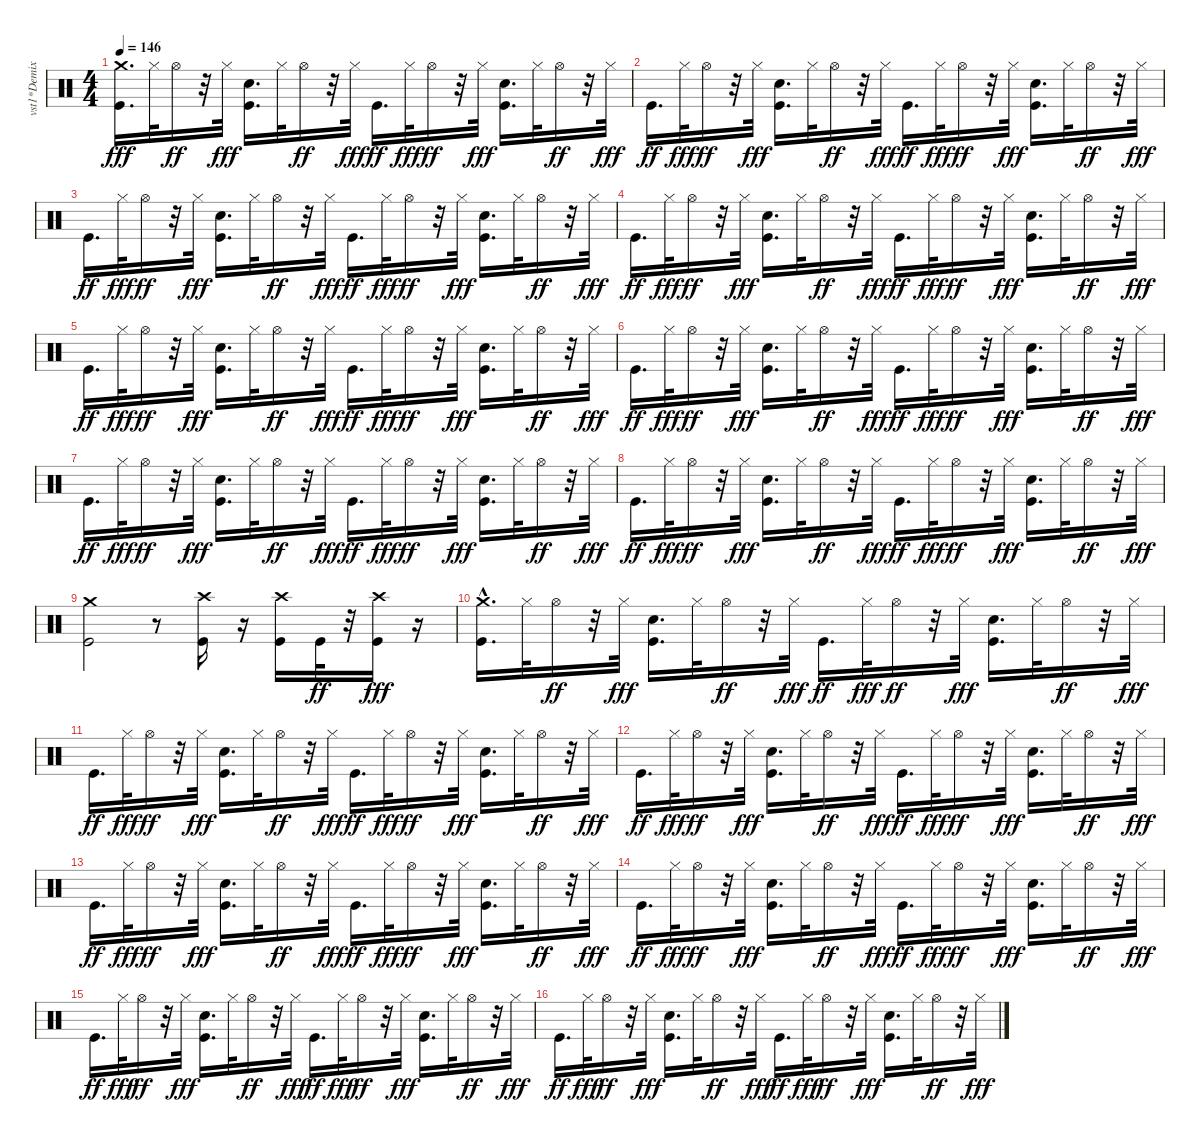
\track ("vst1*Demixed 10" "vst1*Demix") {instrument percussion}
\staff {score}
\articulation defaults
\ts (4 4)
\tempo 146
\clef neutral
\ks c
("Kick (hit)" "Crash medium (hit)").16{d dy fff} "Hi-Hat (closed)".32 "Hi-Hat (open)".16{dy ff} r.32 "Hi-Hat (closed)".32{dy fff} ("Kick (hit)" "Hand Clap (hit)").16{d} "Hi-Hat (closed)".32 "Hi-Hat (open)".16{dy ff} r.32 "Hi-Hat (closed)".32{dy fff} "Kick (hit)".16{d dy ff} "Hi-Hat (closed)".32{dy fff} "Hi-Hat (open)".16{dy ff} r.32 "Hi-Hat (closed)".32{dy fff} ("Kick (hit)" "Hand Clap (hit)").16{d} "Hi-Hat (closed)".32 "Hi-Hat (open)".16{dy ff} r.32 "Hi-Hat (closed)".32{dy fff} |
"Kick (hit)".16{d dy ff} "Hi-Hat (closed)".32{dy fff} "Hi-Hat (open)".16{dy ff} r.32 "Hi-Hat (closed)".32{dy fff} ("Kick (hit)" "Hand Clap (hit)").16{d} "Hi-Hat (closed)".32 "Hi-Hat (open)".16{dy ff} r.32 "Hi-Hat (closed)".32{dy fff} "Kick (hit)".16{d dy ff} "Hi-Hat (closed)".32{dy fff} "Hi-Hat (open)".16{dy ff} r.32 "Hi-Hat (closed)".32{dy fff} ("Kick (hit)" "Hand Clap (hit)").16{d} "Hi-Hat (closed)".32 "Hi-Hat (open)".16{dy ff} r.32 "Hi-Hat (closed)".32{dy fff} |
"Kick (hit)".16{d dy ff} "Hi-Hat (closed)".32{dy fff} "Hi-Hat (open)".16{dy ff} r.32 "Hi-Hat (closed)".32{dy fff} ("Kick (hit)" "Hand Clap (hit)").16{d} "Hi-Hat (closed)".32 "Hi-Hat (open)".16{dy ff} r.32 "Hi-Hat (closed)".32{dy fff} "Kick (hit)".16{d dy ff} "Hi-Hat (closed)".32{dy fff} "Hi-Hat (open)".16{dy ff} r.32 "Hi-Hat (closed)".32{dy fff} ("Kick (hit)" "Hand Clap (hit)").16{d} "Hi-Hat (closed)".32 "Hi-Hat (open)".16{dy ff} r.32 "Hi-Hat (closed)".32{dy fff} |
"Kick (hit)".16{d dy ff} "Hi-Hat (closed)".32{dy fff} "Hi-Hat (open)".16{dy ff} r.32 "Hi-Hat (closed)".32{dy fff} ("Kick (hit)" "Hand Clap (hit)").16{d} "Hi-Hat (closed)".32 "Hi-Hat (open)".16{dy ff} r.32 "Hi-Hat (closed)".32{dy fff} "Kick (hit)".16{d dy ff} "Hi-Hat (closed)".32{dy fff} "Hi-Hat (open)".16{dy ff} r.32 "Hi-Hat (closed)".32{dy fff} ("Kick (hit)" "Hand Clap (hit)").16{d} "Hi-Hat (closed)".32 "Hi-Hat (open)".16{dy ff} r.32 "Hi-Hat (closed)".32{dy fff} |
"Kick (hit)".16{d dy ff} "Hi-Hat (closed)".32{dy fff} "Hi-Hat (open)".16{dy ff} r.32 "Hi-Hat (closed)".32{dy fff} ("Kick (hit)" "Hand Clap (hit)").16{d} "Hi-Hat (closed)".32 "Hi-Hat (open)".16{dy ff} r.32 "Hi-Hat (closed)".32{dy fff} "Kick (hit)".16{d dy ff} "Hi-Hat (closed)".32{dy fff} "Hi-Hat (open)".16{dy ff} r.32 "Hi-Hat (closed)".32{dy fff} ("Kick (hit)" "Hand Clap (hit)").16{d} "Hi-Hat (closed)".32 "Hi-Hat (open)".16{dy ff} r.32 "Hi-Hat (closed)".32{dy fff} |
"Kick (hit)".16{d dy ff} "Hi-Hat (closed)".32{dy fff} "Hi-Hat (open)".16{dy ff} r.32 "Hi-Hat (closed)".32{dy fff} ("Kick (hit)" "Hand Clap (hit)").16{d} "Hi-Hat (closed)".32 "Hi-Hat (open)".16{dy ff} r.32 "Hi-Hat (closed)".32{dy fff} "Kick (hit)".16{d dy ff} "Hi-Hat (closed)".32{dy fff} "Hi-Hat (open)".16{dy ff} r.32 "Hi-Hat (closed)".32{dy fff} ("Kick (hit)" "Hand Clap (hit)").16{d} "Hi-Hat (closed)".32 "Hi-Hat (open)".16{dy ff} r.32 "Hi-Hat (closed)".32{dy fff} |
"Kick (hit)".16{d dy ff} "Hi-Hat (closed)".32{dy fff} "Hi-Hat (open)".16{dy ff} r.32 "Hi-Hat (closed)".32{dy fff} ("Kick (hit)" "Hand Clap (hit)").16{d} "Hi-Hat (closed)".32 "Hi-Hat (open)".16{dy ff} r.32 "Hi-Hat (closed)".32{dy fff} "Kick (hit)".16{d dy ff} "Hi-Hat (closed)".32{dy fff} "Hi-Hat (open)".16{dy ff} r.32 "Hi-Hat (closed)".32{dy fff} ("Kick (hit)" "Hand Clap (hit)").16{d} "Hi-Hat (closed)".32 "Hi-Hat (open)".16{dy ff} r.32 "Hi-Hat (closed)".32{dy fff} |
"Kick (hit)".16{d dy ff} "Hi-Hat (closed)".32{dy fff} "Hi-Hat (open)".16{dy ff} r.32 "Hi-Hat (closed)".32{dy fff} ("Kick (hit)" "Hand Clap (hit)").16{d} "Hi-Hat (closed)".32 "Hi-Hat (open)".16{dy ff} r.32 "Hi-Hat (closed)".32{dy fff} "Kick (hit)".16{d dy ff} "Hi-Hat (closed)".32{dy fff} "Hi-Hat (open)".16{dy ff} r.32 "Hi-Hat (closed)".32{dy fff} ("Kick (hit)" "Hand Clap (hit)").16{d} "Hi-Hat (closed)".32 "Hi-Hat (open)".16{dy ff} r.32 "Hi-Hat (closed)".32{dy fff} |
("Kick (hit)" "Crash medium (hit)").2 r.8 ("Kick (hit)" "Crash high (hit)").16 r.16 ("Kick (hit)" "Crash high (hit)").16 "Kick (hit)".32{dy ff} r.32 ("Kick (hit)" "Crash high (hit)").16{dy fff} r.16 |
("Kick (hit)" "Crash medium (hit)"{hac}).16{d} "Hi-Hat (closed)".32 "Hi-Hat (open)".16{dy ff} r.32 "Hi-Hat (closed)".32{dy fff} ("Kick (hit)" "Hand Clap (hit)").16{d} "Hi-Hat (closed)".32 "Hi-Hat (open)".16{dy ff} r.32 "Hi-Hat (closed)".32{dy fff} "Kick (hit)".16{d dy ff} "Hi-Hat (closed)".32{dy fff} "Hi-Hat (open)".16{dy ff} r.32 "Hi-Hat (closed)".32{dy fff} ("Kick (hit)" "Hand Clap (hit)").16{d} "Hi-Hat (closed)".32 "Hi-Hat (open)".16{dy ff} r.32 "Hi-Hat (closed)".32{dy fff} |
"Kick (hit)".16{d dy ff} "Hi-Hat (closed)".32{dy fff} "Hi-Hat (open)".16{dy ff} r.32 "Hi-Hat (closed)".32{dy fff} ("Kick (hit)" "Hand Clap (hit)").16{d} "Hi-Hat (closed)".32 "Hi-Hat (open)".16{dy ff} r.32 "Hi-Hat (closed)".32{dy fff} "Kick (hit)".16{d dy ff} "Hi-Hat (closed)".32{dy fff} "Hi-Hat (open)".16{dy ff} r.32 "Hi-Hat (closed)".32{dy fff} ("Kick (hit)" "Hand Clap (hit)").16{d} "Hi-Hat (closed)".32 "Hi-Hat (open)".16{dy ff} r.32 "Hi-Hat (closed)".32{dy fff} |
"Kick (hit)".16{d dy ff} "Hi-Hat (closed)".32{dy fff} "Hi-Hat (open)".16{dy ff} r.32 "Hi-Hat (closed)".32{dy fff} ("Kick (hit)" "Hand Clap (hit)").16{d} "Hi-Hat (closed)".32 "Hi-Hat (open)".16{dy ff} r.32 "Hi-Hat (closed)".32{dy fff} "Kick (hit)".16{d dy ff} "Hi-Hat (closed)".32{dy fff} "Hi-Hat (open)".16{dy ff} r.32 "Hi-Hat (closed)".32{dy fff} ("Kick (hit)" "Hand Clap (hit)").16{d} "Hi-Hat (closed)".32 "Hi-Hat (open)".16{dy ff} r.32 "Hi-Hat (closed)".32{dy fff} |
"Kick (hit)".16{d dy ff} "Hi-Hat (closed)".32{dy fff} "Hi-Hat (open)".16{dy ff} r.32 "Hi-Hat (closed)".32{dy fff} ("Kick (hit)" "Hand Clap (hit)").16{d} "Hi-Hat (closed)".32 "Hi-Hat (open)".16{dy ff} r.32 "Hi-Hat (closed)".32{dy fff} "Kick (hit)".16{d dy ff} "Hi-Hat (closed)".32{dy fff} "Hi-Hat (open)".16{dy ff} r.32 "Hi-Hat (closed)".32{dy fff} ("Kick (hit)" "Hand Clap (hit)").16{d} "Hi-Hat (closed)".32 "Hi-Hat (open)".16{dy ff} r.32 "Hi-Hat (closed)".32{dy fff} |
"Kick (hit)".16{d dy ff} "Hi-Hat (closed)".32{dy fff} "Hi-Hat (open)".16{dy ff} r.32 "Hi-Hat (closed)".32{dy fff} ("Kick (hit)" "Hand Clap (hit)").16{d} "Hi-Hat (closed)".32 "Hi-Hat (open)".16{dy ff} r.32 "Hi-Hat (closed)".32{dy fff} "Kick (hit)".16{d dy ff} "Hi-Hat (closed)".32{dy fff} "Hi-Hat (open)".16{dy ff} r.32 "Hi-Hat (closed)".32{dy fff} ("Kick (hit)" "Hand Clap (hit)").16{d} "Hi-Hat (closed)".32 "Hi-Hat (open)".16{dy ff} r.32 "Hi-Hat (closed)".32{dy fff} |
"Kick (hit)".16{d dy ff} "Hi-Hat (closed)".32{dy fff} "Hi-Hat (open)".16{dy ff} r.32 "Hi-Hat (closed)".32{dy fff} ("Kick (hit)" "Hand Clap (hit)").16{d} "Hi-Hat (closed)".32 "Hi-Hat (open)".16{dy ff} r.32 "Hi-Hat (closed)".32{dy fff} "Kick (hit)".16{d dy ff} "Hi-Hat (closed)".32{dy fff} "Hi-Hat (open)".16{dy ff} r.32 "Hi-Hat (closed)".32{dy fff} ("Kick (hit)" "Hand Clap (hit)").16{d} "Hi-Hat (closed)".32 "Hi-Hat (open)".16{dy ff} r.32 "Hi-Hat (closed)".32{dy fff} |
"Kick (hit)".16{d dy ff} "Hi-Hat (closed)".32{dy fff} "Hi-Hat (open)".16{dy ff} r.32 "Hi-Hat (closed)".32{dy fff} ("Kick (hit)" "Hand Clap (hit)").16{d} "Hi-Hat (closed)".32 "Hi-Hat (open)".16{dy ff} r.32 "Hi-Hat (closed)".32{dy fff} "Kick (hit)".16{d dy ff} "Hi-Hat (closed)".32{dy fff} "Hi-Hat (open)".16{dy ff} r.32 "Hi-Hat (closed)".32{dy fff} ("Kick (hit)" "Hand Clap (hit)").16{d} "Hi-Hat (closed)".32 "Hi-Hat (open)".16{dy ff} r.32 "Hi-Hat (closed)".32{dy fff}
